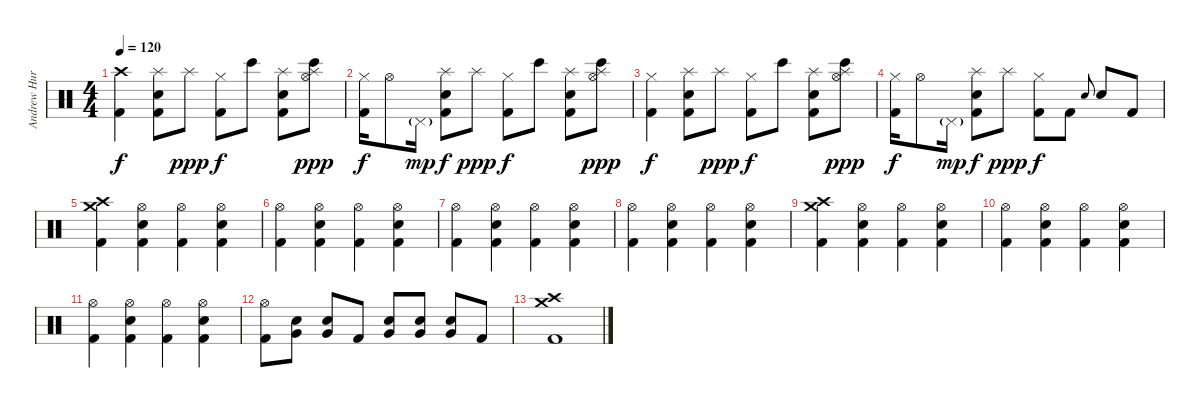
\track ("Andrew Hurley (Drums)" "Andrew Hur") {instrument percussion}
\staff {score}
\articulation defaults
\ts (4 4)
\tempo 120
\clef neutral
\ks c
("Crash high (hit)" "Kick (hit) 2").4{dy f} ("Splash (hit)" "Snare (hit) 2" "Kick (hit) 2").8 "Splash (hit)".8{dy ppp} ("Hi-Hat (closed)" "Kick (hit) 2").8{dy f} "Bongo High (hit)".8 ("Splash (hit)" "Snare (hit) 2" "Kick (hit) 2").8 ("Hi-Hat (open)" "Splash (hit)" "Bongo High (hit)").8{dy ppp} |
("Hi-Hat (closed)" "Kick (hit) 2").16{dy f} "Hi-Hat (open)".8 "Pedal Hi-Hat (hit)"{g}.16{dy mp} ("Splash (hit)" "Snare (hit) 2" "Kick (hit) 2").8{dy f} "Splash (hit)".8{dy ppp} ("Hi-Hat (closed)" "Kick (hit) 2").8{dy f} "Bongo High (hit)".8 ("Splash (hit)" "Snare (hit) 2" "Kick (hit) 2").8 ("Hi-Hat (open)" "Splash (hit)" "Bongo High (hit)").8{dy ppp} |
("Hi-Hat (closed)" "Kick (hit) 2").4{dy f} ("Splash (hit)" "Snare (hit) 2" "Kick (hit) 2").8 "Splash (hit)".8{dy ppp} ("Hi-Hat (closed)" "Kick (hit) 2").8{dy f} "Bongo High (hit)".8 ("Splash (hit)" "Snare (hit) 2" "Kick (hit) 2").8 ("Hi-Hat (open)" "Splash (hit)" "Bongo High (hit)").8{dy ppp} |
("Hi-Hat (closed)" "Kick (hit) 2").16{dy f} "Hi-Hat (open)".8 "Pedal Hi-Hat (hit)"{g}.16{dy mp} ("Splash (hit)" "Snare (hit) 2" "Kick (hit) 2").8{dy f} "Splash (hit)".8{dy ppp} ("Hi-Hat (closed)" "Kick (hit) 2").8{dy f} "Kick (hit) 2".8 "Snare (hit) 2".8{gr onbeat} "Snare (hit) 2".8 "Kick (hit) 2".8 |
("Crash high (hit)" "Crash medium (hit)" "Kick (hit) 2").4 ("Hi-Hat (open)" "Snare (hit) 2" "Kick (hit) 2").4 ("Hi-Hat (open)" "Kick (hit) 2").4 ("Hi-Hat (open)" "Snare (hit) 2" "Kick (hit) 2").4 |
("Hi-Hat (open)" "Kick (hit) 2").4 ("Hi-Hat (open)" "Snare (hit) 2" "Kick (hit) 2").4 ("Hi-Hat (open)" "Kick (hit) 2").4 ("Hi-Hat (open)" "Snare (hit) 2" "Kick (hit) 2").4 |
("Hi-Hat (open)" "Kick (hit) 2").4 ("Hi-Hat (open)" "Snare (hit) 2" "Kick (hit) 2").4 ("Hi-Hat (open)" "Kick (hit) 2").4 ("Hi-Hat (open)" "Snare (hit) 2" "Kick (hit) 2").4 |
("Hi-Hat (open)" "Kick (hit) 2").4 ("Hi-Hat (open)" "Snare (hit) 2" "Kick (hit) 2").4 ("Hi-Hat (open)" "Kick (hit) 2").4 ("Hi-Hat (open)" "Snare (hit) 2" "Kick (hit) 2").4 |
("Crash high (hit)" "Crash medium (hit)" "Kick (hit) 2").4 ("Hi-Hat (open)" "Snare (hit) 2" "Kick (hit) 2").4 ("Hi-Hat (open)" "Kick (hit) 2").4 ("Hi-Hat (open)" "Snare (hit) 2" "Kick (hit) 2").4 |
("Hi-Hat (open)" "Kick (hit) 2").4 ("Hi-Hat (open)" "Snare (hit) 2" "Kick (hit) 2").4 ("Hi-Hat (open)" "Kick (hit) 2").4 ("Hi-Hat (open)" "Snare (hit) 2" "Kick (hit) 2").4 |
("Hi-Hat (open)" "Kick (hit) 2").4 ("Hi-Hat (open)" "Snare (hit) 2" "Kick (hit) 2").4 ("Hi-Hat (open)" "Kick (hit) 2").4 ("Hi-Hat (open)" "Snare (hit) 2" "Kick (hit) 2").4 |
("Hi-Hat (open)" "Kick (hit) 2").8 ("Very Low Tom (hit)" "Snare (hit) 2").8 ("Very Low Tom (hit)" "Snare (hit) 2").8 "Kick (hit) 2".8 ("Very Low Tom (hit)" "Snare (hit) 2").8 ("Very Low Tom (hit)" "Snare (hit) 2").8 ("Very Low Tom (hit)" "Snare (hit) 2").8 "Kick (hit) 2".8 |
("Crash high (hit)" "Crash medium (hit)" "Kick (hit) 2").1
